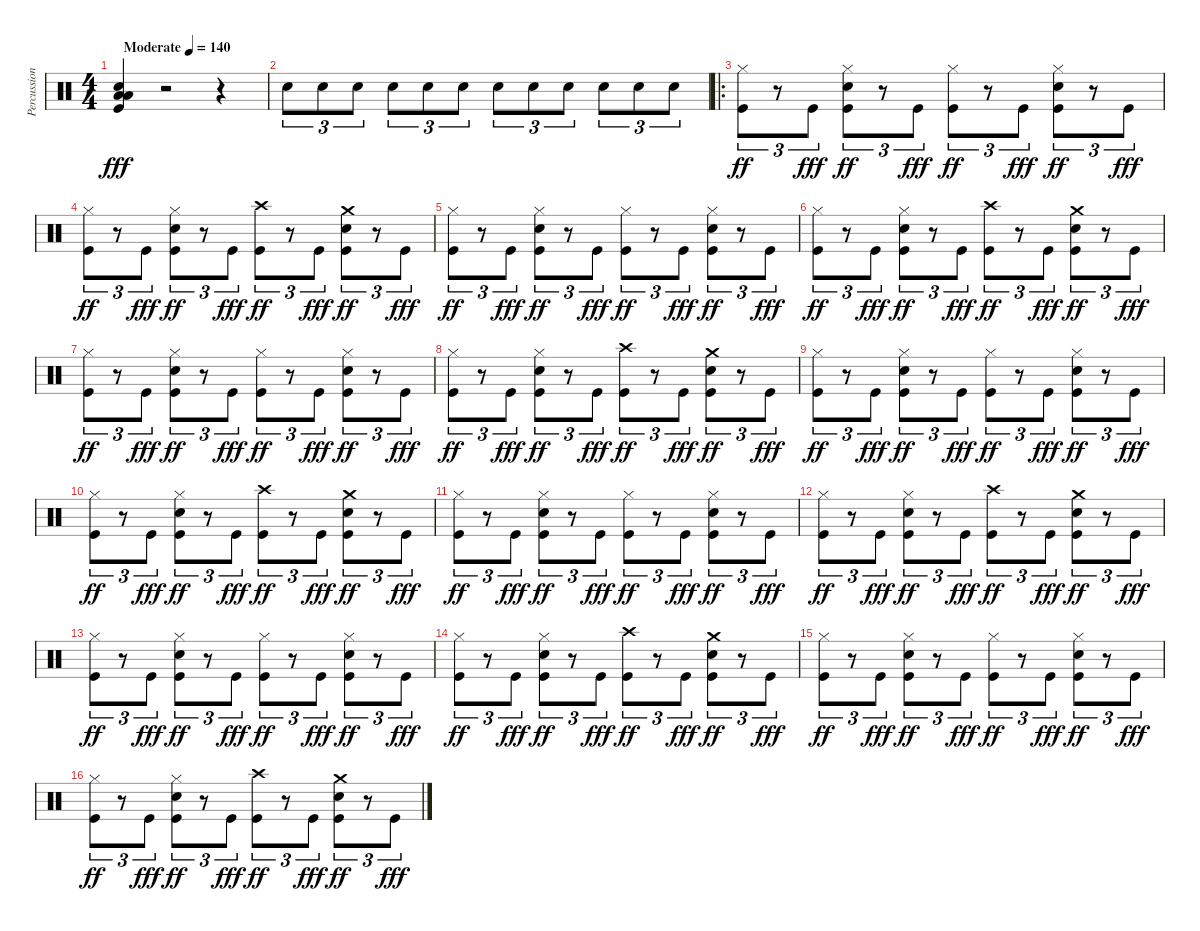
\track ("Percussions" "Percussion") {instrument percussion}
\staff {score}
\articulation defaults
\ts (4 4)
\tempo (140 "Moderate")
\clef neutral
\ks c
("Snare (hit) 2" "Low Floor Tom (hit)" "Low Tom (hit)" "Kick (hit)").4{dy fff} r.2 r.4 |
"Snare (hit) 2".8{tu (3 2)} "Snare (hit) 2".8{tu (3 2)} "Snare (hit) 2".8{tu (3 2)} "Snare (hit) 2".8{tu (3 2)} "Snare (hit) 2".8{tu (3 2)} "Snare (hit) 2".8{tu (3 2)} "Snare (hit) 2".8{tu (3 2)} "Snare (hit) 2".8{tu (3 2)} "Snare (hit) 2".8{tu (3 2)} "Snare (hit) 2".8{tu (3 2)} "Snare (hit) 2".8{tu (3 2)} "Snare (hit) 2".8{tu (3 2)} |
\ro
("Hi-Hat (closed)" "Kick (hit)").8{tu (3 2) dy ff} r.8{tu (3 2)} "Kick (hit)".8{tu (3 2) dy fff} ("Hi-Hat (closed)" "Snare (hit) 2" "Kick (hit)").8{tu (3 2) dy ff} r.8{tu (3 2)} "Kick (hit)".8{tu (3 2) dy fff} ("Hi-Hat (closed)" "Kick (hit)").8{tu (3 2) dy ff} r.8{tu (3 2)} "Kick (hit)".8{tu (3 2) dy fff} ("Hi-Hat (closed)" "Snare (hit) 2" "Kick (hit)").8{tu (3 2) dy ff} r.8{tu (3 2)} "Kick (hit)".8{tu (3 2) dy fff} |
("Hi-Hat (closed)" "Kick (hit)").8{tu (3 2) dy ff} r.8{tu (3 2)} "Kick (hit)".8{tu (3 2) dy fff} ("Hi-Hat (closed)" "Snare (hit) 2" "Kick (hit)").8{tu (3 2) dy ff} r.8{tu (3 2)} "Kick (hit)".8{tu (3 2) dy fff} ("Crash high (hit)" "Kick (hit)").8{tu (3 2) dy ff} r.8{tu (3 2)} "Kick (hit)".8{tu (3 2) dy fff} ("Crash medium (hit)" "Snare (hit) 2" "Kick (hit)").8{tu (3 2) dy ff} r.8{tu (3 2)} "Kick (hit)".8{tu (3 2) dy fff} |
("Hi-Hat (closed)" "Kick (hit)").8{tu (3 2) dy ff} r.8{tu (3 2)} "Kick (hit)".8{tu (3 2) dy fff} ("Hi-Hat (closed)" "Snare (hit) 2" "Kick (hit)").8{tu (3 2) dy ff} r.8{tu (3 2)} "Kick (hit)".8{tu (3 2) dy fff} ("Hi-Hat (closed)" "Kick (hit)").8{tu (3 2) dy ff} r.8{tu (3 2)} "Kick (hit)".8{tu (3 2) dy fff} ("Hi-Hat (closed)" "Snare (hit) 2" "Kick (hit)").8{tu (3 2) dy ff} r.8{tu (3 2)} "Kick (hit)".8{tu (3 2) dy fff} |
("Hi-Hat (closed)" "Kick (hit)").8{tu (3 2) dy ff} r.8{tu (3 2)} "Kick (hit)".8{tu (3 2) dy fff} ("Hi-Hat (closed)" "Snare (hit) 2" "Kick (hit)").8{tu (3 2) dy ff} r.8{tu (3 2)} "Kick (hit)".8{tu (3 2) dy fff} ("Crash high (hit)" "Kick (hit)").8{tu (3 2) dy ff} r.8{tu (3 2)} "Kick (hit)".8{tu (3 2) dy fff} ("Crash medium (hit)" "Snare (hit) 2" "Kick (hit)").8{tu (3 2) dy ff} r.8{tu (3 2)} "Kick (hit)".8{tu (3 2) dy fff} |
("Hi-Hat (closed)" "Kick (hit)").8{tu (3 2) dy ff} r.8{tu (3 2)} "Kick (hit)".8{tu (3 2) dy fff} ("Hi-Hat (closed)" "Snare (hit) 2" "Kick (hit)").8{tu (3 2) dy ff} r.8{tu (3 2)} "Kick (hit)".8{tu (3 2) dy fff} ("Hi-Hat (closed)" "Kick (hit)").8{tu (3 2) dy ff} r.8{tu (3 2)} "Kick (hit)".8{tu (3 2) dy fff} ("Hi-Hat (closed)" "Snare (hit) 2" "Kick (hit)").8{tu (3 2) dy ff} r.8{tu (3 2)} "Kick (hit)".8{tu (3 2) dy fff} |
("Hi-Hat (closed)" "Kick (hit)").8{tu (3 2) dy ff} r.8{tu (3 2)} "Kick (hit)".8{tu (3 2) dy fff} ("Hi-Hat (closed)" "Snare (hit) 2" "Kick (hit)").8{tu (3 2) dy ff} r.8{tu (3 2)} "Kick (hit)".8{tu (3 2) dy fff} ("Crash high (hit)" "Kick (hit)").8{tu (3 2) dy ff} r.8{tu (3 2)} "Kick (hit)".8{tu (3 2) dy fff} ("Crash medium (hit)" "Snare (hit) 2" "Kick (hit)").8{tu (3 2) dy ff} r.8{tu (3 2)} "Kick (hit)".8{tu (3 2) dy fff} |
("Hi-Hat (closed)" "Kick (hit)").8{tu (3 2) dy ff} r.8{tu (3 2)} "Kick (hit)".8{tu (3 2) dy fff} ("Hi-Hat (closed)" "Snare (hit) 2" "Kick (hit)").8{tu (3 2) dy ff} r.8{tu (3 2)} "Kick (hit)".8{tu (3 2) dy fff} ("Hi-Hat (closed)" "Kick (hit)").8{tu (3 2) dy ff} r.8{tu (3 2)} "Kick (hit)".8{tu (3 2) dy fff} ("Hi-Hat (closed)" "Snare (hit) 2" "Kick (hit)").8{tu (3 2) dy ff} r.8{tu (3 2)} "Kick (hit)".8{tu (3 2) dy fff} |
("Hi-Hat (closed)" "Kick (hit)").8{tu (3 2) dy ff} r.8{tu (3 2)} "Kick (hit)".8{tu (3 2) dy fff} ("Hi-Hat (closed)" "Snare (hit) 2" "Kick (hit)").8{tu (3 2) dy ff} r.8{tu (3 2)} "Kick (hit)".8{tu (3 2) dy fff} ("Crash high (hit)" "Kick (hit)").8{tu (3 2) dy ff} r.8{tu (3 2)} "Kick (hit)".8{tu (3 2) dy fff} ("Crash medium (hit)" "Snare (hit) 2" "Kick (hit)").8{tu (3 2) dy ff} r.8{tu (3 2)} "Kick (hit)".8{tu (3 2) dy fff} |
("Hi-Hat (closed)" "Kick (hit)").8{tu (3 2) dy ff} r.8{tu (3 2)} "Kick (hit)".8{tu (3 2) dy fff} ("Hi-Hat (closed)" "Snare (hit) 2" "Kick (hit)").8{tu (3 2) dy ff} r.8{tu (3 2)} "Kick (hit)".8{tu (3 2) dy fff} ("Hi-Hat (closed)" "Kick (hit)").8{tu (3 2) dy ff} r.8{tu (3 2)} "Kick (hit)".8{tu (3 2) dy fff} ("Hi-Hat (closed)" "Snare (hit) 2" "Kick (hit)").8{tu (3 2) dy ff} r.8{tu (3 2)} "Kick (hit)".8{tu (3 2) dy fff} |
("Hi-Hat (closed)" "Kick (hit)").8{tu (3 2) dy ff} r.8{tu (3 2)} "Kick (hit)".8{tu (3 2) dy fff} ("Hi-Hat (closed)" "Snare (hit) 2" "Kick (hit)").8{tu (3 2) dy ff} r.8{tu (3 2)} "Kick (hit)".8{tu (3 2) dy fff} ("Crash high (hit)" "Kick (hit)").8{tu (3 2) dy ff} r.8{tu (3 2)} "Kick (hit)".8{tu (3 2) dy fff} ("Crash medium (hit)" "Snare (hit) 2" "Kick (hit)").8{tu (3 2) dy ff} r.8{tu (3 2)} "Kick (hit)".8{tu (3 2) dy fff} |
("Hi-Hat (closed)" "Kick (hit)").8{tu (3 2) dy ff} r.8{tu (3 2)} "Kick (hit)".8{tu (3 2) dy fff} ("Hi-Hat (closed)" "Snare (hit) 2" "Kick (hit)").8{tu (3 2) dy ff} r.8{tu (3 2)} "Kick (hit)".8{tu (3 2) dy fff} ("Hi-Hat (closed)" "Kick (hit)").8{tu (3 2) dy ff} r.8{tu (3 2)} "Kick (hit)".8{tu (3 2) dy fff} ("Hi-Hat (closed)" "Snare (hit) 2" "Kick (hit)").8{tu (3 2) dy ff} r.8{tu (3 2)} "Kick (hit)".8{tu (3 2) dy fff} |
("Hi-Hat (closed)" "Kick (hit)").8{tu (3 2) dy ff} r.8{tu (3 2)} "Kick (hit)".8{tu (3 2) dy fff} ("Hi-Hat (closed)" "Snare (hit) 2" "Kick (hit)").8{tu (3 2) dy ff} r.8{tu (3 2)} "Kick (hit)".8{tu (3 2) dy fff} ("Crash high (hit)" "Kick (hit)").8{tu (3 2) dy ff} r.8{tu (3 2)} "Kick (hit)".8{tu (3 2) dy fff} ("Crash medium (hit)" "Snare (hit) 2" "Kick (hit)").8{tu (3 2) dy ff} r.8{tu (3 2)} "Kick (hit)".8{tu (3 2) dy fff} |
("Hi-Hat (closed)" "Kick (hit)").8{tu (3 2) dy ff} r.8{tu (3 2)} "Kick (hit)".8{tu (3 2) dy fff} ("Hi-Hat (closed)" "Snare (hit) 2" "Kick (hit)").8{tu (3 2) dy ff} r.8{tu (3 2)} "Kick (hit)".8{tu (3 2) dy fff} ("Hi-Hat (closed)" "Kick (hit)").8{tu (3 2) dy ff} r.8{tu (3 2)} "Kick (hit)".8{tu (3 2) dy fff} ("Hi-Hat (closed)" "Snare (hit) 2" "Kick (hit)").8{tu (3 2) dy ff} r.8{tu (3 2)} "Kick (hit)".8{tu (3 2) dy fff} |
("Hi-Hat (closed)" "Kick (hit)").8{tu (3 2) dy ff} r.8{tu (3 2)} "Kick (hit)".8{tu (3 2) dy fff} ("Hi-Hat (closed)" "Snare (hit) 2" "Kick (hit)").8{tu (3 2) dy ff} r.8{tu (3 2)} "Kick (hit)".8{tu (3 2) dy fff} ("Crash high (hit)" "Kick (hit)").8{tu (3 2) dy ff} r.8{tu (3 2)} "Kick (hit)".8{tu (3 2) dy fff} ("Crash medium (hit)" "Snare (hit) 2" "Kick (hit)").8{tu (3 2) dy ff} r.8{tu (3 2)} "Kick (hit)".8{tu (3 2) dy fff}
